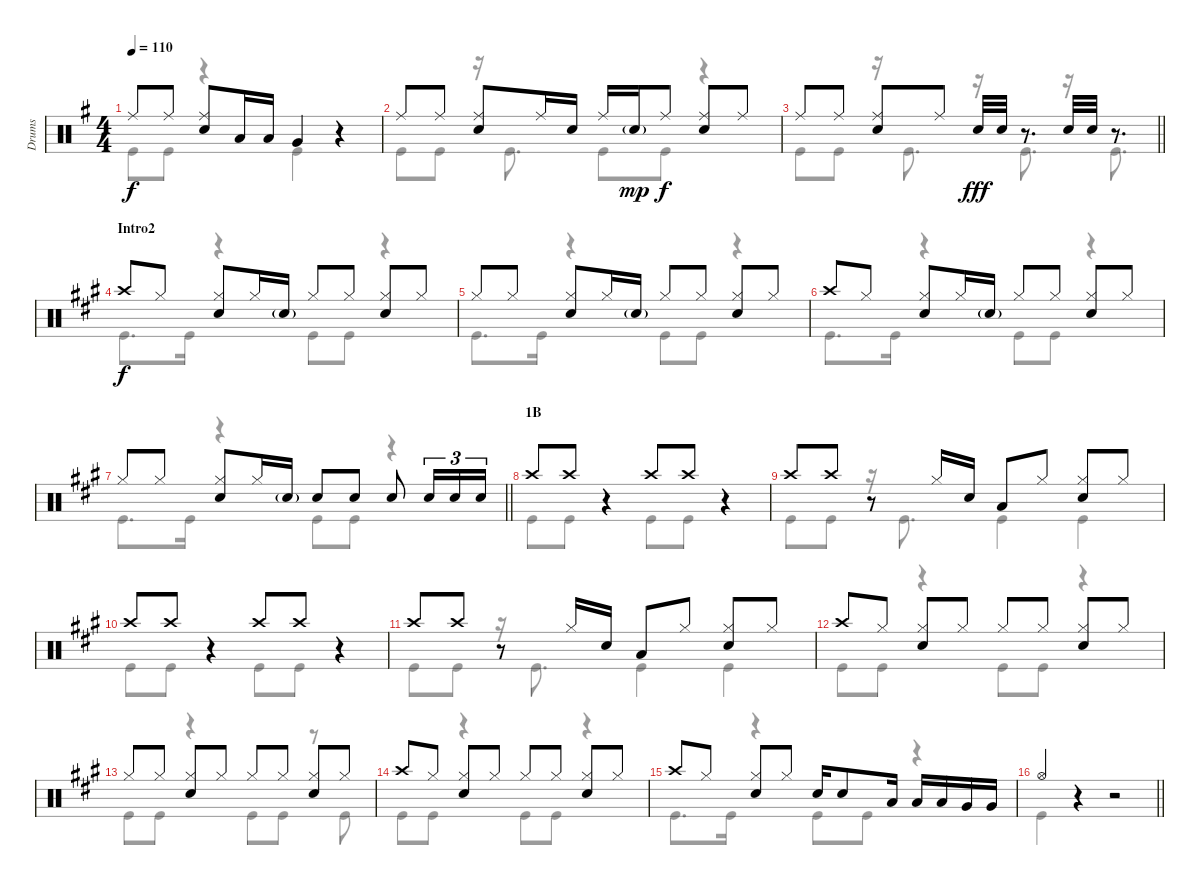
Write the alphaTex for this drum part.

\track ("Drums" "Drums") {instrument percussion}
\staff {score}
\articulation defaults
\voice
\ts (4 4)
\tempo 110
\clef neutral
\ks g "Ride (middle)".8{dy f} "Ride (middle)".8
("Ride (middle)" "Snare (hit) 2").8 "Low Tom (hit)".16 "Low Tom (hit)".16 "Very Low Tom (hit)".4 r.4 |
"Ride (middle)".8 "Ride (middle)".8 ("Ride (middle)" "Snare (hit) 2").8 "Ride (middle)".16 "Snare (hit) 2".16 "Ride (middle)".16 "Snare (hit) 2"{g}.16{dy mp} "Ride (middle)".8{dy f} ("Ride (middle)" "Snare (hit) 2").8 "Ride (middle)".8 |
\barLineRight lightlight "Ride (middle)".8 "Ride (middle)".8
("Ride (middle)" "Snare (hit) 2").8 "Ride (middle)".8 "Snare (hit) 2".32{dy fff} "Snare (hit) 2".32 r.8{d} "Snare (hit) 2".32 "Snare (hit) 2".32 r.8{d} |
\section ("" "Intro2")
\ks a "Crash high (hit)".8{dy f} "Hi-Hat (closed)".8
("Hi-Hat (closed)" "Snare (hit) 2").8 "Hi-Hat (closed)".16 "Snare (hit) 2"{g}.16 "Hi-Hat (closed)".8 "Hi-Hat (closed)".8 ("Hi-Hat (closed)" "Snare (hit) 2").8 "Hi-Hat (closed)".8 |
"Hi-Hat (closed)".8 "Hi-Hat (closed)".8 ("Hi-Hat (closed)" "Snare (hit) 2").8 "Hi-Hat (closed)".16 "Snare (hit) 2"{g}.16 "Hi-Hat (closed)".8 "Hi-Hat (closed)".8 ("Hi-Hat (closed)" "Snare (hit) 2").8 "Hi-Hat (closed)".8 |
"Crash high (hit)".8 "Hi-Hat (closed)".8 ("Hi-Hat (closed)" "Snare (hit) 2").8 "Hi-Hat (closed)".16 "Snare (hit) 2"{g}.16 "Hi-Hat (closed)".8 "Hi-Hat (closed)".8 ("Hi-Hat (closed)" "Snare (hit) 2").8 "Hi-Hat (closed)".8 |
\barLineRight lightlight "Hi-Hat (closed)".8 "Hi-Hat (closed)".8
("Hi-Hat (closed)" "Snare (hit) 2").8 "Hi-Hat (closed)".16 "Snare (hit) 2"{g}.16 "Snare (hit) 2".8 "Snare (hit) 2".8 "Snare (hit) 2".8 "Snare (hit) 2".16{tu (3 2)} "Snare (hit) 2".16{tu (3 2)} "Snare (hit) 2".16{tu (3 2)} |
\section ("" "1B")
"Crash high (hit)".8 "Crash high (hit)".8 r.4 "Crash high (hit)".8 "Crash high (hit)".8 r.4 |
"Crash high (hit)".8 "Crash high (hit)".8 r.8 "Hi-Hat (closed)".16 "Snare (hit) 2".16 "Low Tom (hit)".8 "Hi-Hat (closed)".8 ("Hi-Hat (closed)" "Snare (hit) 2").8 "Hi-Hat (closed)".8 |
"Crash high (hit)".8 "Crash high (hit)".8 r.4 "Crash high (hit)".8 "Crash high (hit)".8 r.4 |
"Crash high (hit)".8 "Crash high (hit)".8 r.8 "Hi-Hat (closed)".16 "Snare (hit) 2".16 "Low Tom (hit)".8 "Hi-Hat (closed)".8 ("Hi-Hat (closed)" "Snare (hit) 2").8 "Hi-Hat (closed)".8 |
"Crash high (hit)".8 "Hi-Hat (closed)".8 ("Hi-Hat (closed)" "Snare (hit) 2").8 "Hi-Hat (closed)".8 "Hi-Hat (closed)".8 "Hi-Hat (closed)".8 ("Hi-Hat (closed)" "Snare (hit) 2").8 "Hi-Hat (closed)".8 |
"Hi-Hat (closed)".8 "Hi-Hat (closed)".8 ("Hi-Hat (closed)" "Snare (hit) 2").8 "Hi-Hat (closed)".8 "Hi-Hat (closed)".8 "Hi-Hat (closed)".8 ("Hi-Hat (closed)" "Snare (hit) 2").8 "Hi-Hat (closed)".8 |
"Crash high (hit)".8 "Hi-Hat (closed)".8 ("Hi-Hat (closed)" "Snare (hit) 2").8 "Hi-Hat (closed)".8 "Hi-Hat (closed)".8 "Hi-Hat (closed)".8 ("Hi-Hat (closed)" "Snare (hit) 2").8 "Hi-Hat (closed)".8 |
"Crash high (hit)".8 "Hi-Hat (closed)".8 ("Hi-Hat (closed)" "Snare (hit) 2").8 "Hi-Hat (closed)".8 "Snare (hit) 2".16 "Snare (hit) 2".8 "Low Tom (hit)".16 "Low Tom (hit)".16 "Low Tom (hit)".16 "Very Low Tom (hit)".16 "Very Low Tom (hit)".16 |
\barLineRight lightlight "Hi-Hat (open)".4
r.4 r.2
\voice
\clef neutral
\ottava regular
\simile none
\ks g "Kick (hit)".8{dy f} "Kick (hit)".8
r.4 "Kick (hit)".4 r.4 |
"Kick (hit)".8 "Kick (hit)".8 r.16 "Kick (hit)".8{d} "Kick (hit)".8 "Kick (hit)".8 r.4 |
\barLineRight lightlight "Kick (hit)".8 "Kick (hit)".8
r.16 "Kick (hit)".8{d} r.16 "Kick (hit)".8{d} r.16 "Kick (hit)".8{d} |
\ks a "Kick (hit)".8{d} "Kick (hit)".16
r.4 "Kick (hit)".8 "Kick (hit)".8 r.4 |
"Kick (hit)".8{d} "Kick (hit)".16 r.4 "Kick (hit)".8 "Kick (hit)".8 r.4 |
"Kick (hit)".8{d} "Kick (hit)".16 r.4 "Kick (hit)".8 "Kick (hit)".8 r.4 |
\barLineRight lightlight "Kick (hit)".8{d} "Kick (hit)".16
r.4 "Kick (hit)".8 "Kick (hit)".8 r.4 |
"Kick (hit)".8 "Kick (hit)".8 r.4 "Kick (hit)".8 "Kick (hit)".8 r.4 |
"Kick (hit)".8 "Kick (hit)".8 r.16 "Kick (hit)".8{d} "Kick (hit)".4 "Kick (hit)".4 |
"Kick (hit)".8 "Kick (hit)".8 r.4 "Kick (hit)".8 "Kick (hit)".8 r.4 |
"Kick (hit)".8 "Kick (hit)".8 r.16 "Kick (hit)".8{d} "Kick (hit)".4 "Kick (hit)".4 |
"Kick (hit)".8 "Kick (hit)".8 r.4 "Kick (hit)".8 "Kick (hit)".8 r.4 |
"Kick (hit)".8 "Kick (hit)".8 r.4 "Kick (hit)".8 "Kick (hit)".8 r.8 "Kick (hit)".8 |
"Kick (hit)".8 "Kick (hit)".8 r.4 "Kick (hit)".8 "Kick (hit)".8 r.4 |
"Kick (hit)".8{d} "Kick (hit)".16 r.4 "Kick (hit)".8 "Kick (hit)".8 r.4 |
\barLineRight lightlight "Kick (hit)".4
r.4 r.2
